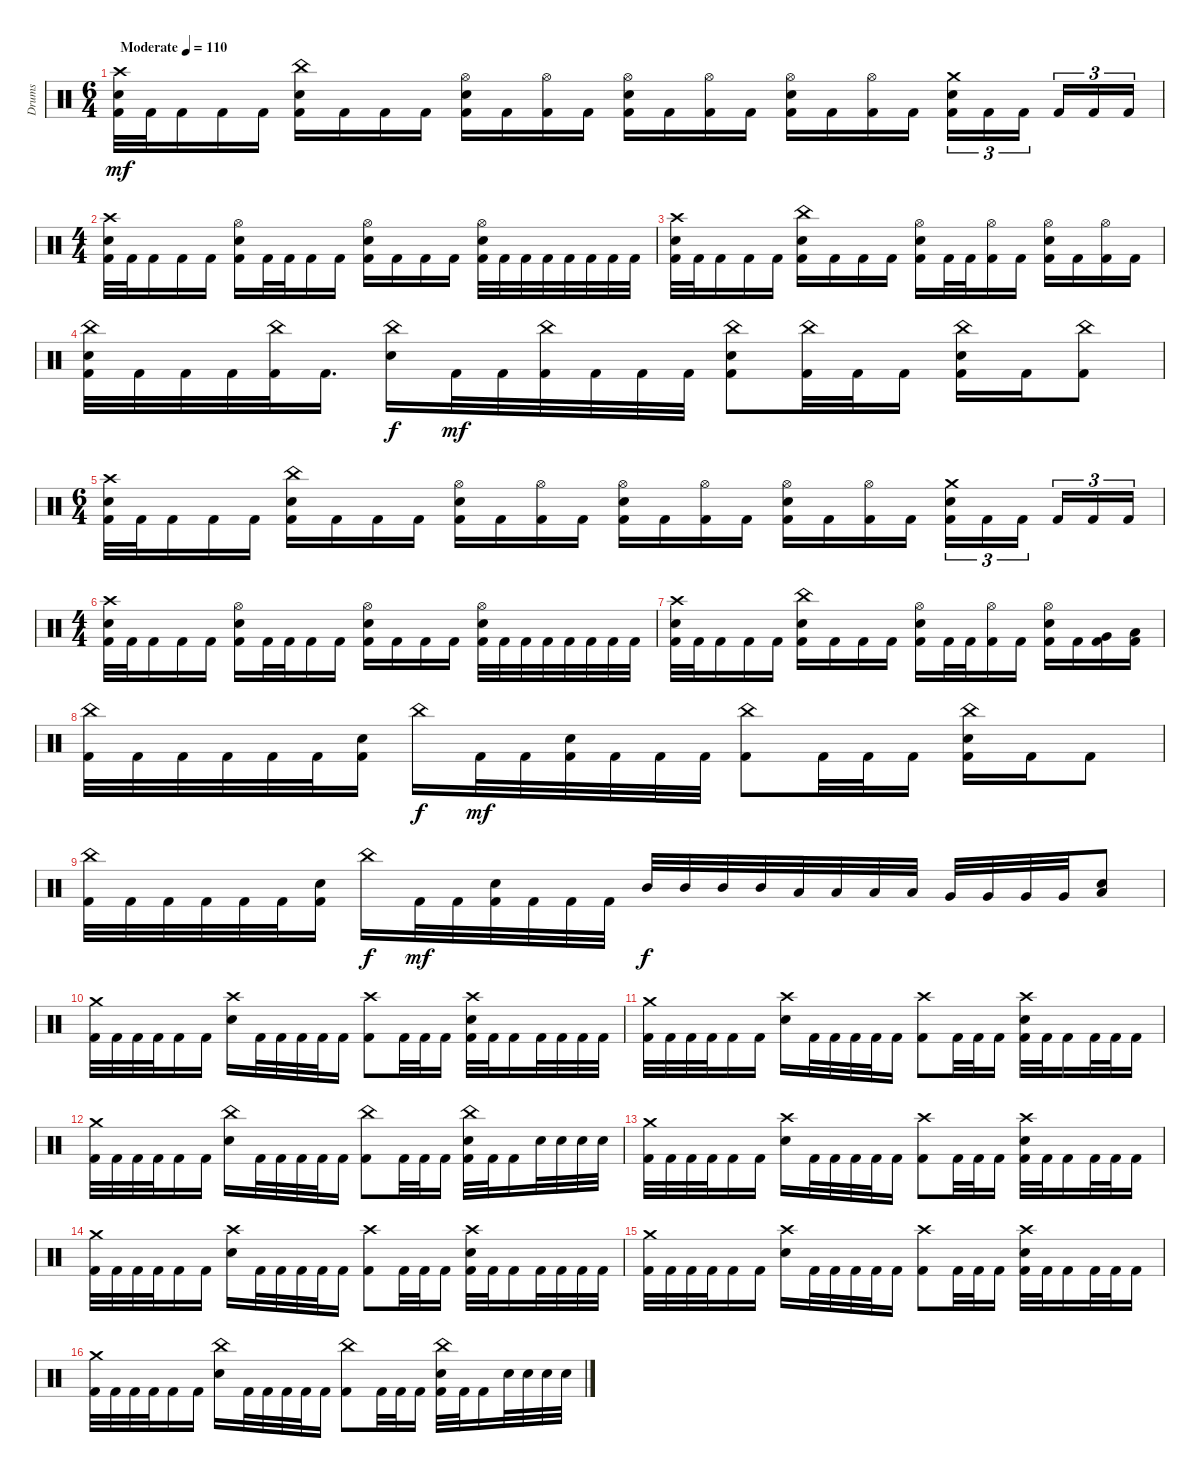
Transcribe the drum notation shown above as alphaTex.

\track ("Drums" "Drums") {instrument percussion}
\staff {score}
\articulation defaults
\ts (6 4)
\tempo (110 "Moderate")
\clef neutral
\ks c
("Crash high (hit)" "Electric Snare (hit)" "Kick (hit) 2").32{dy mf} "Kick (hit) 2".32 "Kick (hit) 2".16 "Kick (hit) 2".16 "Kick (hit) 2".16 ("China (hit)" "Electric Snare (hit)" "Kick (hit) 2").16 "Kick (hit) 2".16 "Kick (hit) 2".16 "Kick (hit) 2".16 ("Hi-Hat (open)" "Electric Snare (hit)" "Kick (hit) 2").16 "Kick (hit) 2".16 ("Hi-Hat (open)" "Kick (hit) 2").16 "Kick (hit) 2".16 ("Hi-Hat (open)" "Electric Snare (hit)" "Kick (hit) 2").16 "Kick (hit) 2".16 ("Hi-Hat (open)" "Kick (hit) 2").16 "Kick (hit) 2".16 ("Hi-Hat (open)" "Electric Snare (hit)" "Kick (hit) 2").16 "Kick (hit) 2".16 ("Hi-Hat (open)" "Kick (hit) 2").16 "Kick (hit) 2".16{beam splitsecondary} ("Crash medium (hit)" "Electric Snare (hit)" "Kick (hit) 2").16{tu (3 2)} "Kick (hit) 2".16{tu (3 2)} "Kick (hit) 2".16{tu (3 2) beam splitsecondary} "Kick (hit) 2".16{tu (3 2)} "Kick (hit) 2".16{tu (3 2)} "Kick (hit) 2".16{tu (3 2)} |
\ts (4 4)
("Crash high (hit)" "Electric Snare (hit)" "Kick (hit) 2").32 "Kick (hit) 2".32 "Kick (hit) 2".16 "Kick (hit) 2".16 "Kick (hit) 2".16 ("Hi-Hat (open)" "Electric Snare (hit)" "Kick (hit) 2").16 "Kick (hit) 2".32 "Kick (hit) 2".32 "Kick (hit) 2".16 "Kick (hit) 2".16 ("Hi-Hat (open)" "Electric Snare (hit)" "Kick (hit) 2").16 "Kick (hit) 2".16 "Kick (hit) 2".16 "Kick (hit) 2".16 ("Hi-Hat (open)" "Electric Snare (hit)" "Kick (hit) 2").32 "Kick (hit) 2".32 "Kick (hit) 2".32 "Kick (hit) 2".32 "Kick (hit) 2".32 "Kick (hit) 2".32 "Kick (hit) 2".32 "Kick (hit) 2".32 |
("Crash high (hit)" "Electric Snare (hit)" "Kick (hit) 2").32 "Kick (hit) 2".32 "Kick (hit) 2".16 "Kick (hit) 2".16 "Kick (hit) 2".16 ("China (hit)" "Electric Snare (hit)" "Kick (hit) 2").16 "Kick (hit) 2".16 "Kick (hit) 2".16 "Kick (hit) 2".16 ("Hi-Hat (open)" "Electric Snare (hit)" "Kick (hit) 2").16 "Kick (hit) 2".32 "Kick (hit) 2".32 ("Hi-Hat (open)" "Kick (hit) 2").16 "Kick (hit) 2".16 ("Hi-Hat (open)" "Electric Snare (hit)" "Kick (hit) 2").16 "Kick (hit) 2".16 ("Hi-Hat (open)" "Kick (hit) 2").16 "Kick (hit) 2".16 |
("China (hit)" "Electric Snare (hit)" "Kick (hit) 2").32 "Kick (hit) 2".32 "Kick (hit) 2".32 "Kick (hit) 2".32 ("China (hit)" "Kick (hit) 2").32 "Kick (hit) 2".16{d} ("China (hit)" "Electric Snare (hit)").16{dy f} "Kick (hit) 2".32{dy mf} "Kick (hit) 2".32 ("China (hit)" "Kick (hit) 2").32 "Kick (hit) 2".32 "Kick (hit) 2".32 "Kick (hit) 2".32 ("China (hit)" "Electric Snare (hit)" "Kick (hit) 2").8 ("China (hit)" "Kick (hit) 2").32 "Kick (hit) 2".32 "Kick (hit) 2".16 ("China (hit)" "Electric Snare (hit)" "Kick (hit) 2").16 "Kick (hit) 2".16 ("China (hit)" "Kick (hit) 2").8 |
\ts (6 4)
("Crash high (hit)" "Electric Snare (hit)" "Kick (hit) 2").32 "Kick (hit) 2".32 "Kick (hit) 2".16 "Kick (hit) 2".16 "Kick (hit) 2".16 ("China (hit)" "Electric Snare (hit)" "Kick (hit) 2").16 "Kick (hit) 2".16 "Kick (hit) 2".16 "Kick (hit) 2".16 ("Hi-Hat (open)" "Electric Snare (hit)" "Kick (hit) 2").16 "Kick (hit) 2".16 ("Hi-Hat (open)" "Kick (hit) 2").16 "Kick (hit) 2".16 ("Hi-Hat (open)" "Electric Snare (hit)" "Kick (hit) 2").16 "Kick (hit) 2".16 ("Hi-Hat (open)" "Kick (hit) 2").16 "Kick (hit) 2".16 ("Hi-Hat (open)" "Electric Snare (hit)" "Kick (hit) 2").16 "Kick (hit) 2".16 ("Hi-Hat (open)" "Kick (hit) 2").16 "Kick (hit) 2".16{beam splitsecondary} ("Crash medium (hit)" "Electric Snare (hit)" "Kick (hit) 2").16{tu (3 2)} "Kick (hit) 2".16{tu (3 2)} "Kick (hit) 2".16{tu (3 2) beam splitsecondary} "Kick (hit) 2".16{tu (3 2)} "Kick (hit) 2".16{tu (3 2)} "Kick (hit) 2".16{tu (3 2)} |
\ts (4 4)
("Crash high (hit)" "Electric Snare (hit)" "Kick (hit) 2").32 "Kick (hit) 2".32 "Kick (hit) 2".16 "Kick (hit) 2".16 "Kick (hit) 2".16 ("Hi-Hat (open)" "Electric Snare (hit)" "Kick (hit) 2").16 "Kick (hit) 2".32 "Kick (hit) 2".32 "Kick (hit) 2".16 "Kick (hit) 2".16 ("Hi-Hat (open)" "Electric Snare (hit)" "Kick (hit) 2").16 "Kick (hit) 2".16 "Kick (hit) 2".16 "Kick (hit) 2".16 ("Hi-Hat (open)" "Electric Snare (hit)" "Kick (hit) 2").32 "Kick (hit) 2".32 "Kick (hit) 2".32 "Kick (hit) 2".32 "Kick (hit) 2".32 "Kick (hit) 2".32 "Kick (hit) 2".32 "Kick (hit) 2".32 |
("Crash high (hit)" "Electric Snare (hit)" "Kick (hit) 2").32 "Kick (hit) 2".32 "Kick (hit) 2".16 "Kick (hit) 2".16 "Kick (hit) 2".16 ("China (hit)" "Electric Snare (hit)" "Kick (hit) 2").16 "Kick (hit) 2".16 "Kick (hit) 2".16 "Kick (hit) 2".16 ("Hi-Hat (open)" "Electric Snare (hit)" "Kick (hit) 2").16 "Kick (hit) 2".32 "Kick (hit) 2".32 ("Hi-Hat (open)" "Kick (hit) 2").16 "Kick (hit) 2".16 ("Hi-Hat (open)" "Electric Snare (hit)" "Kick (hit) 2").16 "Kick (hit) 2".16 ("Very Low Tom (hit)" "Kick (hit) 2").16 ("Low Floor Tom (hit)" "Kick (hit) 2").16 |
("China (hit)" "Kick (hit) 2").32 "Kick (hit) 2".32 "Kick (hit) 2".32 "Kick (hit) 2".32 "Kick (hit) 2".32 "Kick (hit) 2".32 ("Electric Snare (hit)" "Kick (hit) 2").16 "China (hit)".16{dy f} "Kick (hit) 2".32{dy mf} "Kick (hit) 2".32 ("Electric Snare (hit)" "Kick (hit) 2").32 "Kick (hit) 2".32 "Kick (hit) 2".32 "Kick (hit) 2".32 ("China (hit)" "Kick (hit) 2").8 "Kick (hit) 2".32 "Kick (hit) 2".32 "Kick (hit) 2".16 ("China (hit)" "Electric Snare (hit)" "Kick (hit) 2").16 "Kick (hit) 2".16 "Kick (hit) 2".8 |
("China (hit)" "Kick (hit) 2").32 "Kick (hit) 2".32 "Kick (hit) 2".32 "Kick (hit) 2".32 "Kick (hit) 2".32 "Kick (hit) 2".32 ("Electric Snare (hit)" "Kick (hit) 2").16 "China (hit)".16{dy f} "Kick (hit) 2".32{dy mf} "Kick (hit) 2".32 ("Electric Snare (hit)" "Kick (hit) 2").32 "Kick (hit) 2".32 "Kick (hit) 2".32 "Kick (hit) 2".32 "Mid Tom (hit)".32{dy f} "Mid Tom (hit)".32 "Mid Tom (hit)".32 "Mid Tom (hit)".32 "Low Tom (hit)".32 "Low Tom (hit)".32 "Low Tom (hit)".32 "Low Tom (hit)".32 "Very Low Tom (hit)".32 "Very Low Tom (hit)".32 "Very Low Tom (hit)".32 "Very Low Tom (hit)".32 ("Electric Snare (hit)" "Low Floor Tom (hit)").8 |
("Crash medium (hit)" "Kick (hit) 2").32 "Kick (hit) 2".32 "Kick (hit) 2".32 "Kick (hit) 2".32 "Kick (hit) 2".16 "Kick (hit) 2".16 ("Crash high (hit)" "Electric Snare (hit)").16 "Kick (hit) 2".32 "Kick (hit) 2".32 "Kick (hit) 2".32 "Kick (hit) 2".32 "Kick (hit) 2".16 ("Crash high (hit)" "Kick (hit) 2").8 "Kick (hit) 2".32 "Kick (hit) 2".32 "Kick (hit) 2".16 ("Crash high (hit)" "Electric Snare (hit)" "Kick (hit) 2").32 "Kick (hit) 2".32 "Kick (hit) 2".16 "Kick (hit) 2".32 "Kick (hit) 2".32 "Kick (hit) 2".32 "Kick (hit) 2".32 |
("Crash medium (hit)" "Kick (hit) 2").32 "Kick (hit) 2".32 "Kick (hit) 2".32 "Kick (hit) 2".32 "Kick (hit) 2".16 "Kick (hit) 2".16 ("Crash high (hit)" "Electric Snare (hit)").16 "Kick (hit) 2".32 "Kick (hit) 2".32 "Kick (hit) 2".32 "Kick (hit) 2".32 "Kick (hit) 2".16 ("Crash high (hit)" "Kick (hit) 2").8 "Kick (hit) 2".32 "Kick (hit) 2".32 "Kick (hit) 2".16 ("Crash high (hit)" "Electric Snare (hit)" "Kick (hit) 2").32 "Kick (hit) 2".32 "Kick (hit) 2".16 "Kick (hit) 2".32 "Kick (hit) 2".32 "Kick (hit) 2".16 |
("Crash medium (hit)" "Kick (hit) 2").32 "Kick (hit) 2".32 "Kick (hit) 2".32 "Kick (hit) 2".32 "Kick (hit) 2".16 "Kick (hit) 2".16 ("China (hit)" "Electric Snare (hit)").16 "Kick (hit) 2".32 "Kick (hit) 2".32 "Kick (hit) 2".32 "Kick (hit) 2".32 "Kick (hit) 2".16 ("China (hit)" "Kick (hit) 2").8 "Kick (hit) 2".32 "Kick (hit) 2".32 "Kick (hit) 2".16 ("China (hit)" "Electric Snare (hit)" "Kick (hit) 2").32 "Kick (hit) 2".32 "Kick (hit) 2".16 "Electric Snare (hit)".32 "Electric Snare (hit)".32 "Electric Snare (hit)".32 "Electric Snare (hit)".32 |
("Crash medium (hit)" "Kick (hit) 2").32 "Kick (hit) 2".32 "Kick (hit) 2".32 "Kick (hit) 2".32 "Kick (hit) 2".16 "Kick (hit) 2".16 ("Crash high (hit)" "Electric Snare (hit)").16 "Kick (hit) 2".32 "Kick (hit) 2".32 "Kick (hit) 2".32 "Kick (hit) 2".32 "Kick (hit) 2".16 ("Crash high (hit)" "Kick (hit) 2").8 "Kick (hit) 2".32 "Kick (hit) 2".32 "Kick (hit) 2".16 ("Crash high (hit)" "Electric Snare (hit)" "Kick (hit) 2").32 "Kick (hit) 2".32 "Kick (hit) 2".16 "Kick (hit) 2".32 "Kick (hit) 2".32 "Kick (hit) 2".16 |
("Crash medium (hit)" "Kick (hit) 2").32 "Kick (hit) 2".32 "Kick (hit) 2".32 "Kick (hit) 2".32 "Kick (hit) 2".16 "Kick (hit) 2".16 ("Crash high (hit)" "Electric Snare (hit)").16 "Kick (hit) 2".32 "Kick (hit) 2".32 "Kick (hit) 2".32 "Kick (hit) 2".32 "Kick (hit) 2".16 ("Crash high (hit)" "Kick (hit) 2").8 "Kick (hit) 2".32 "Kick (hit) 2".32 "Kick (hit) 2".16 ("Crash high (hit)" "Electric Snare (hit)" "Kick (hit) 2").32 "Kick (hit) 2".32 "Kick (hit) 2".16 "Kick (hit) 2".32 "Kick (hit) 2".32 "Kick (hit) 2".32 "Kick (hit) 2".32 |
("Crash medium (hit)" "Kick (hit) 2").32 "Kick (hit) 2".32 "Kick (hit) 2".32 "Kick (hit) 2".32 "Kick (hit) 2".16 "Kick (hit) 2".16 ("Crash high (hit)" "Electric Snare (hit)").16 "Kick (hit) 2".32 "Kick (hit) 2".32 "Kick (hit) 2".32 "Kick (hit) 2".32 "Kick (hit) 2".16 ("Crash high (hit)" "Kick (hit) 2").8 "Kick (hit) 2".32 "Kick (hit) 2".32 "Kick (hit) 2".16 ("Crash high (hit)" "Electric Snare (hit)" "Kick (hit) 2").32 "Kick (hit) 2".32 "Kick (hit) 2".16 "Kick (hit) 2".32 "Kick (hit) 2".32 "Kick (hit) 2".16 |
("Crash medium (hit)" "Kick (hit) 2").32 "Kick (hit) 2".32 "Kick (hit) 2".32 "Kick (hit) 2".32 "Kick (hit) 2".16 "Kick (hit) 2".16 ("China (hit)" "Electric Snare (hit)").16 "Kick (hit) 2".32 "Kick (hit) 2".32 "Kick (hit) 2".32 "Kick (hit) 2".32 "Kick (hit) 2".16 ("China (hit)" "Kick (hit) 2").8 "Kick (hit) 2".32 "Kick (hit) 2".32 "Kick (hit) 2".16 ("China (hit)" "Electric Snare (hit)" "Kick (hit) 2").32 "Kick (hit) 2".32 "Kick (hit) 2".16 "Electric Snare (hit)".32 "Electric Snare (hit)".32 "Electric Snare (hit)".32 "Electric Snare (hit)".32
